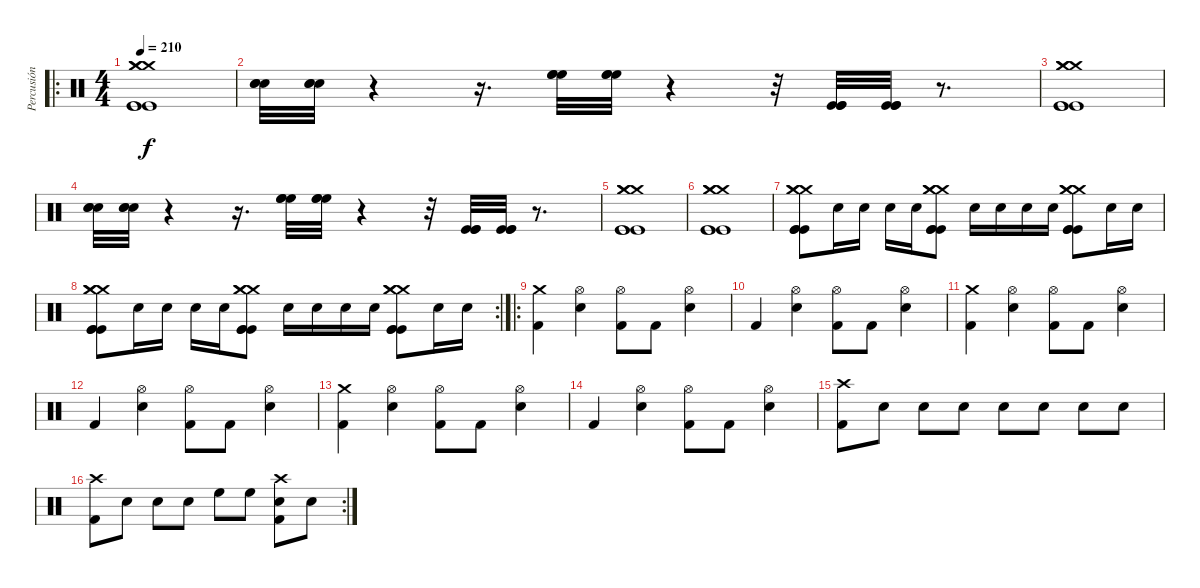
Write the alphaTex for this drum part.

\track ("Percusión" "Percusión") {instrument percussion}
\staff {score}
\articulation defaults
\ro
\ts (4 4)
\tempo 210
\clef neutral
\ks c
("Crash medium (hit)" "Crash medium (hit)" "Crash medium (hit)" "Kick (hit)" "Kick (hit)" "Kick (hit)").1{dy f} |
("Electric Snare (hit)" "Electric Snare (hit)" "Electric Snare (hit)").32 ("Electric Snare (hit)" "Electric Snare (hit)" "Electric Snare (hit)").32 r.4 r.16{d} ("High Floor Tom (hit)" "High Floor Tom (hit)" "High Floor Tom (hit)").32 ("High Floor Tom (hit)" "High Floor Tom (hit)" "High Floor Tom (hit)").32 r.4 r.32 ("Kick (hit)" "Kick (hit)" "Kick (hit)").32 ("Kick (hit)" "Kick (hit)" "Kick (hit)").32 r.8{d} |
("Crash medium (hit)" "Crash medium (hit)" "Crash medium (hit)" "Kick (hit)" "Kick (hit)" "Kick (hit)").1 |
("Electric Snare (hit)" "Electric Snare (hit)" "Electric Snare (hit)").32 ("Electric Snare (hit)" "Electric Snare (hit)" "Electric Snare (hit)").32 r.4 r.16{d} ("High Floor Tom (hit)" "High Floor Tom (hit)" "High Floor Tom (hit)").32 ("High Floor Tom (hit)" "High Floor Tom (hit)" "High Floor Tom (hit)").32 r.4 r.32 ("Kick (hit)" "Kick (hit)" "Kick (hit)").32 ("Kick (hit)" "Kick (hit)" "Kick (hit)").32 r.8{d} |
("Crash medium (hit)" "Crash medium (hit)" "Crash medium (hit)" "Kick (hit)" "Kick (hit)" "Kick (hit)").1 |
("Crash medium (hit)" "Crash medium (hit)" "Crash medium (hit)" "Kick (hit)" "Kick (hit)" "Kick (hit)").1 |
("Crash medium (hit)" "Crash medium (hit)" "Crash medium (hit)" "Kick (hit)" "Kick (hit)" "Kick (hit)").8 "Electric Snare (hit)".16 "Electric Snare (hit)".16 "Electric Snare (hit)".16 "Electric Snare (hit)".16 ("Crash medium (hit)" "Crash medium (hit)" "Crash medium (hit)" "Kick (hit)" "Kick (hit)" "Kick (hit)").8 "Electric Snare (hit)".16 "Electric Snare (hit)".16 "Electric Snare (hit)".16 "Electric Snare (hit)".16 ("Crash medium (hit)" "Crash medium (hit)" "Crash medium (hit)" "Kick (hit)" "Kick (hit)" "Kick (hit)").8 "Electric Snare (hit)".16 "Electric Snare (hit)".16 |
\rc 2
("Crash medium (hit)" "Crash medium (hit)" "Crash medium (hit)" "Kick (hit)" "Kick (hit)" "Kick (hit)").8 "Electric Snare (hit)".16 "Electric Snare (hit)".16 "Electric Snare (hit)".16 "Electric Snare (hit)".16 ("Crash medium (hit)" "Crash medium (hit)" "Crash medium (hit)" "Kick (hit)" "Kick (hit)" "Kick (hit)").8 "Electric Snare (hit)".16 "Electric Snare (hit)".16 "Electric Snare (hit)".16 "Electric Snare (hit)".16 ("Crash medium (hit)" "Crash medium (hit)" "Crash medium (hit)" "Kick (hit)" "Kick (hit)" "Kick (hit)").8 "Electric Snare (hit)".16 "Electric Snare (hit)".16 |
\ro
("Kick (hit) 2" "Crash medium (hit)").4 ("Snare (hit) 2" "Hi-Hat (open)").4 ("Kick (hit) 2" "Hi-Hat (open)").8 "Kick (hit) 2".8 ("Snare (hit) 2" "Hi-Hat (open)").4 |
"Kick (hit) 2".4 ("Snare (hit) 2" "Hi-Hat (open)").4 ("Kick (hit) 2" "Hi-Hat (open)").8 "Kick (hit) 2".8 ("Snare (hit) 2" "Hi-Hat (open)").4 |
("Kick (hit) 2" "Crash medium (hit)").4 ("Snare (hit) 2" "Hi-Hat (open)").4 ("Kick (hit) 2" "Hi-Hat (open)").8 "Kick (hit) 2".8 ("Snare (hit) 2" "Hi-Hat (open)").4 |
"Kick (hit) 2".4 ("Snare (hit) 2" "Hi-Hat (open)").4 ("Kick (hit) 2" "Hi-Hat (open)").8 "Kick (hit) 2".8 ("Snare (hit) 2" "Hi-Hat (open)").4 |
("Kick (hit) 2" "Crash medium (hit)").4 ("Snare (hit) 2" "Hi-Hat (open)").4 ("Kick (hit) 2" "Hi-Hat (open)").8 "Kick (hit) 2".8 ("Snare (hit) 2" "Hi-Hat (open)").4 |
"Kick (hit) 2".4 ("Snare (hit) 2" "Hi-Hat (open)").4 ("Kick (hit) 2" "Hi-Hat (open)").8 "Kick (hit) 2".8 ("Snare (hit) 2" "Hi-Hat (open)").4 |
("Kick (hit) 2" "Crash high (hit)").8 "Snare (hit) 2".8 "Snare (hit) 2".8 "Snare (hit) 2".8 "Snare (hit) 2".8 "Snare (hit) 2".8 "Snare (hit) 2".8 "Snare (hit) 2".8 |
\rc 2
("Kick (hit) 2" "Crash high (hit)").8 "Snare (hit) 2".8 "Snare (hit) 2".8 "Snare (hit) 2".8 "High Floor Tom (hit)".8 "High Floor Tom (hit)".8 ("Kick (hit) 2" "Snare (hit) 2" "Crash high (hit)").8 "Snare (hit) 2".8
